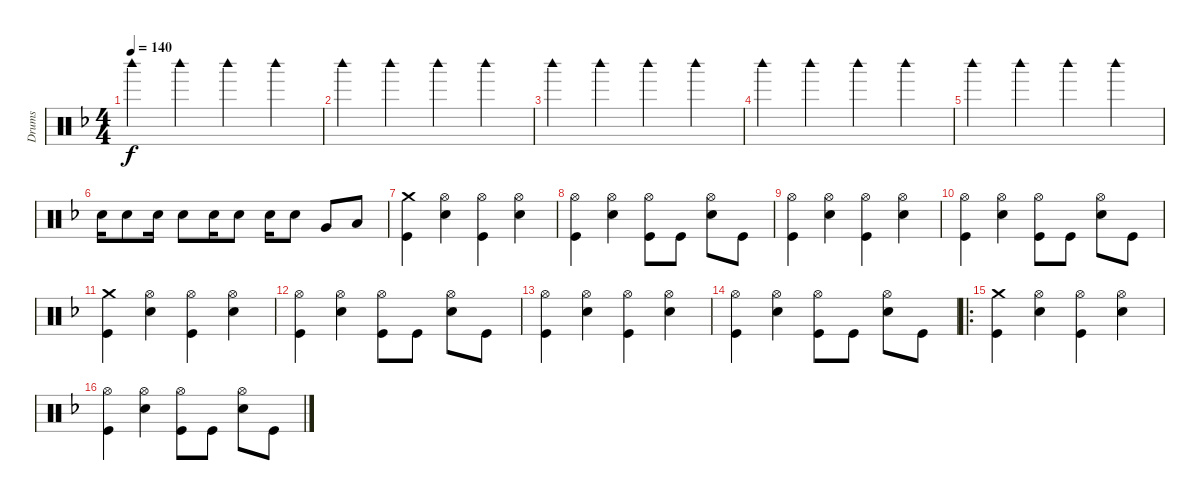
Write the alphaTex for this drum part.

\track ("Drums" "Drums") {instrument percussion}
\staff {score}
\articulation defaults
\ts (4 4)
\tempo 140
\clef neutral
\ks f "Woodblock high (hit)".4{dy f} "Woodblock high (hit)".4 "Woodblock high (hit)".4 "Woodblock high (hit)".4
|
"Woodblock high (hit)".4 "Woodblock high (hit)".4 "Woodblock high (hit)".4 "Woodblock high (hit)".4 |
"Woodblock high (hit)".4 "Woodblock high (hit)".4 "Woodblock high (hit)".4 "Woodblock high (hit)".4 |
"Woodblock high (hit)".4 "Woodblock high (hit)".4 "Woodblock high (hit)".4 "Woodblock high (hit)".4 |
"Woodblock high (hit)".4 "Woodblock high (hit)".4 "Woodblock high (hit)".4 "Woodblock high (hit)".4 |
"Snare (hit) 2".16 "Snare (hit) 2".8 "Snare (hit) 2".16 "Snare (hit) 2".8 "Snare (hit) 2".16 "Snare (hit) 2".8 "Snare (hit) 2".16 "Snare (hit) 2".8 "Very Low Tom (hit)".8 "Low Floor Tom (hit)".8 |
("Crash medium (hit)" "Kick (hit)").4 ("Hi-Hat (open)" "Snare (hit) 2").4 ("Hi-Hat (open)" "Kick (hit)").4 ("Hi-Hat (open)" "Snare (hit) 2").4 |
("Hi-Hat (open)" "Kick (hit)").4 ("Hi-Hat (open)" "Snare (hit) 2").4 ("Hi-Hat (open)" "Kick (hit)").8 "Kick (hit)".8 ("Hi-Hat (open)" "Snare (hit) 2").8 "Kick (hit)".8 |
("Hi-Hat (open)" "Kick (hit)").4 ("Hi-Hat (open)" "Snare (hit) 2").4 ("Hi-Hat (open)" "Kick (hit)").4 ("Hi-Hat (open)" "Snare (hit) 2").4 |
("Hi-Hat (open)" "Kick (hit)").4 ("Hi-Hat (open)" "Snare (hit) 2").4 ("Hi-Hat (open)" "Kick (hit)").8 "Kick (hit)".8 ("Hi-Hat (open)" "Snare (hit) 2").8 "Kick (hit)".8 |
("Crash medium (hit)" "Kick (hit)").4 ("Hi-Hat (open)" "Snare (hit) 2").4 ("Hi-Hat (open)" "Kick (hit)").4 ("Hi-Hat (open)" "Snare (hit) 2").4 |
("Hi-Hat (open)" "Kick (hit)").4 ("Hi-Hat (open)" "Snare (hit) 2").4 ("Hi-Hat (open)" "Kick (hit)").8 "Kick (hit)".8 ("Hi-Hat (open)" "Snare (hit) 2").8 "Kick (hit)".8 |
("Hi-Hat (open)" "Kick (hit)").4 ("Hi-Hat (open)" "Snare (hit) 2").4 ("Hi-Hat (open)" "Kick (hit)").4 ("Hi-Hat (open)" "Snare (hit) 2").4 |
("Hi-Hat (open)" "Kick (hit)").4 ("Hi-Hat (open)" "Snare (hit) 2").4 ("Hi-Hat (open)" "Kick (hit)").8 "Kick (hit)".8 ("Hi-Hat (open)" "Snare (hit) 2").8 "Kick (hit)".8 |
\ro
("Crash medium (hit)" "Kick (hit)").4 ("Hi-Hat (open)" "Snare (hit) 2").4 ("Hi-Hat (open)" "Kick (hit)").4 ("Hi-Hat (open)" "Snare (hit) 2").4 |
("Hi-Hat (open)" "Kick (hit)").4 ("Hi-Hat (open)" "Snare (hit) 2").4 ("Hi-Hat (open)" "Kick (hit)").8 "Kick (hit)".8 ("Hi-Hat (open)" "Snare (hit) 2").8 "Kick (hit)".8
